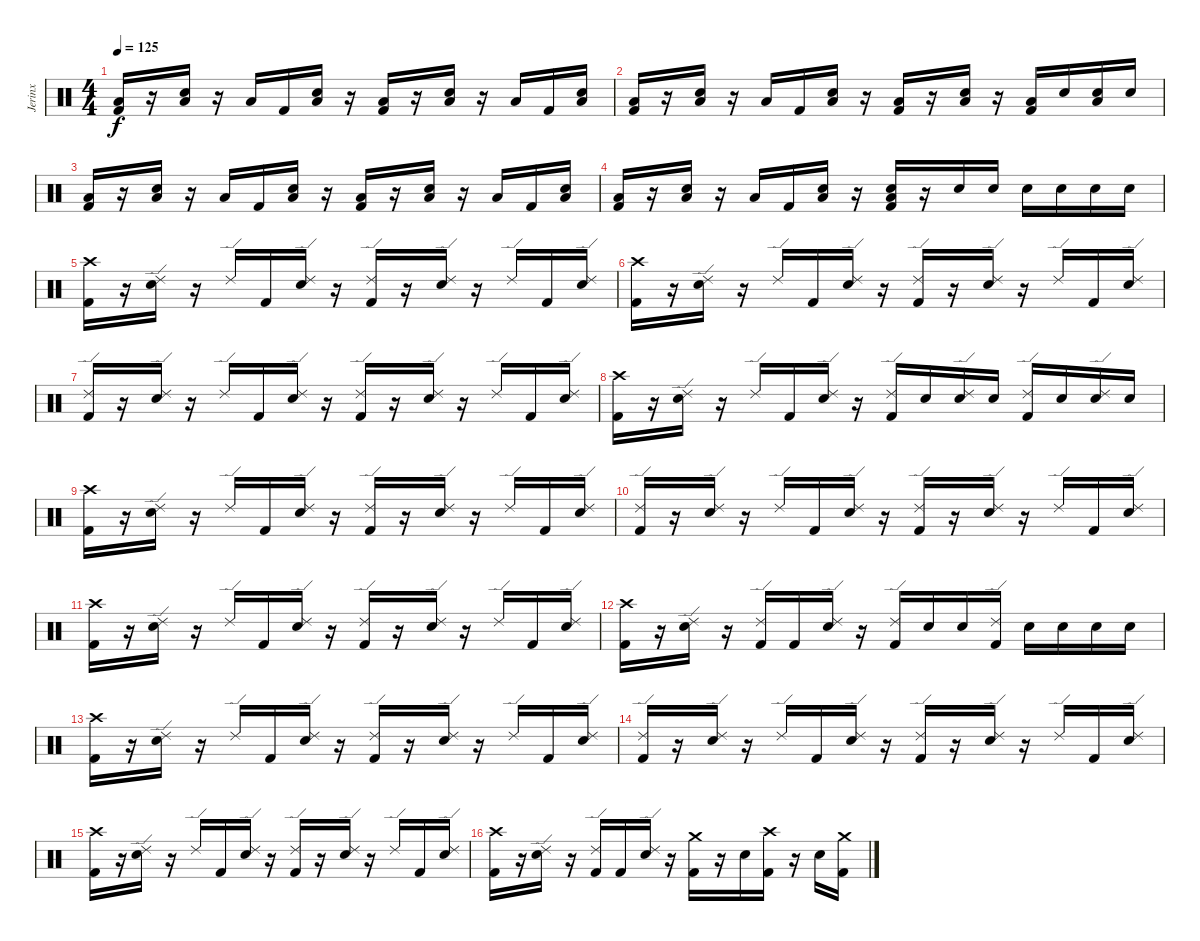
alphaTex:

\track ("Jerinx" "Jerinx") {instrument percussion}
\staff {score}
\articulation defaults
\ts (4 4)
\tempo 125
\clef neutral
\ks c
("Kick (hit) 2" "Low Floor Tom (hit)").16{dy f} r.16 ("Electric Snare (hit)" "Low Floor Tom (hit)").16 r.16 "Low Floor Tom (hit)".16 "Kick (hit) 2".16 ("Electric Snare (hit)" "Low Floor Tom (hit)").16 r.16 ("Kick (hit) 2" "Low Floor Tom (hit)").16 r.16 ("Electric Snare (hit)" "Low Floor Tom (hit)").16 r.16 "Low Floor Tom (hit)".16 "Kick (hit) 2".16 ("Electric Snare (hit)" "Low Floor Tom (hit)").16 |
("Kick (hit) 2" "Low Floor Tom (hit)").16 r.16 ("Electric Snare (hit)" "Low Floor Tom (hit)").16 r.16 "Low Floor Tom (hit)".16 "Kick (hit) 2".16 ("Electric Snare (hit)" "Low Floor Tom (hit)").16 r.16 ("Kick (hit) 2" "Low Floor Tom (hit)").16 r.16 ("Electric Snare (hit)" "Low Floor Tom (hit)").16 r.16 ("Kick (hit) 2" "Low Floor Tom (hit)").16 "Electric Snare (hit)".16 ("Electric Snare (hit)" "Low Floor Tom (hit)").16 "Electric Snare (hit)".16 |
("Kick (hit) 2" "Low Floor Tom (hit)").16 r.16 ("Electric Snare (hit)" "Low Floor Tom (hit)").16 r.16 "Low Floor Tom (hit)".16 "Kick (hit) 2".16 ("Electric Snare (hit)" "Low Floor Tom (hit)").16 r.16 ("Kick (hit) 2" "Low Floor Tom (hit)").16 r.16 ("Electric Snare (hit)" "Low Floor Tom (hit)").16 r.16 "Low Floor Tom (hit)".16 "Kick (hit) 2".16 ("Electric Snare (hit)" "Low Floor Tom (hit)").16 |
("Kick (hit) 2" "Low Floor Tom (hit)").16 r.16 ("Electric Snare (hit)" "Low Floor Tom (hit)").16 r.16 "Low Floor Tom (hit)".16 "Kick (hit) 2".16 ("Electric Snare (hit)" "Low Floor Tom (hit)").16 r.16 ("Kick (hit) 2" "Electric Snare (hit)" "Low Floor Tom (hit)").16 r.16 "Electric Snare (hit)".16 "Electric Snare (hit)".16 "Electric Snare (hit)".16 "Electric Snare (hit)".16 "Electric Snare (hit)".16 "Electric Snare (hit)".16 |
("Kick (hit) 2" "Crash high (hit)").16 r.16 ("Electric Snare (hit)" "Ride (edge) 2").16 r.16 "Ride (edge) 2".16 "Kick (hit) 2".16 ("Electric Snare (hit)" "Ride (edge) 2").16 r.16 ("Kick (hit) 2" "Ride (edge) 2").16 r.16 ("Electric Snare (hit)" "Ride (edge) 2").16 r.16 "Ride (edge) 2".16 "Kick (hit) 2".16 ("Electric Snare (hit)" "Ride (edge) 2").16 |
("Kick (hit) 2" "Crash high (hit)").16 r.16 ("Electric Snare (hit)" "Ride (edge) 2").16 r.16 "Ride (edge) 2".16 "Kick (hit) 2".16 ("Electric Snare (hit)" "Ride (edge) 2").16 r.16 ("Kick (hit) 2" "Ride (edge) 2").16 r.16 ("Electric Snare (hit)" "Ride (edge) 2").16 r.16 "Ride (edge) 2".16 "Kick (hit) 2".16 ("Electric Snare (hit)" "Ride (edge) 2").16 |
("Kick (hit) 2" "Ride (edge) 2").16 r.16 ("Electric Snare (hit)" "Ride (edge) 2").16 r.16 "Ride (edge) 2".16 "Kick (hit) 2".16 ("Electric Snare (hit)" "Ride (edge) 2").16 r.16 ("Kick (hit) 2" "Ride (edge) 2").16 r.16 ("Electric Snare (hit)" "Ride (edge) 2").16 r.16 "Ride (edge) 2".16 "Kick (hit) 2".16 ("Electric Snare (hit)" "Ride (edge) 2").16 |
("Kick (hit) 2" "Crash high (hit)").16 r.16 ("Electric Snare (hit)" "Ride (edge) 2").16 r.16 "Ride (edge) 2".16 "Kick (hit) 2".16 ("Electric Snare (hit)" "Ride (edge) 2").16 r.16 ("Kick (hit) 2" "Ride (edge) 2").16 "Electric Snare (hit)".16 ("Electric Snare (hit)" "Ride (edge) 2").16 "Electric Snare (hit)".16 ("Kick (hit) 2" "Ride (edge) 2").16 "Electric Snare (hit)".16 ("Electric Snare (hit)" "Ride (edge) 2").16 "Electric Snare (hit)".16 |
("Kick (hit) 2" "Crash high (hit)").16 r.16 ("Electric Snare (hit)" "Ride (edge) 2").16 r.16 "Ride (edge) 2".16 "Kick (hit) 2".16 ("Electric Snare (hit)" "Ride (edge) 2").16 r.16 ("Kick (hit) 2" "Ride (edge) 2").16 r.16 ("Electric Snare (hit)" "Ride (edge) 2").16 r.16 "Ride (edge) 2".16 "Kick (hit) 2".16 ("Electric Snare (hit)" "Ride (edge) 2").16 |
("Kick (hit) 2" "Ride (edge) 2").16 r.16 ("Electric Snare (hit)" "Ride (edge) 2").16 r.16 "Ride (edge) 2".16 "Kick (hit) 2".16 ("Electric Snare (hit)" "Ride (edge) 2").16 r.16 ("Kick (hit) 2" "Ride (edge) 2").16 r.16 ("Electric Snare (hit)" "Ride (edge) 2").16 r.16 "Ride (edge) 2".16 "Kick (hit) 2".16 ("Electric Snare (hit)" "Ride (edge) 2").16 |
("Kick (hit) 2" "Crash high (hit)").16 r.16 ("Electric Snare (hit)" "Ride (edge) 2").16 r.16 "Ride (edge) 2".16 "Kick (hit) 2".16 ("Electric Snare (hit)" "Ride (edge) 2").16 r.16 ("Kick (hit) 2" "Ride (edge) 2").16 r.16 ("Electric Snare (hit)" "Ride (edge) 2").16 r.16 "Ride (edge) 2".16 "Kick (hit) 2".16 ("Electric Snare (hit)" "Ride (edge) 2").16 |
("Kick (hit) 2" "Crash high (hit)").16 r.16 ("Electric Snare (hit)" "Ride (edge) 2").16 r.16 ("Kick (hit) 2" "Ride (edge) 2").16 "Kick (hit) 2".16 ("Electric Snare (hit)" "Ride (edge) 2").16 r.16 ("Kick (hit) 2" "Ride (edge) 2").16 "Electric Snare (hit)".16 "Electric Snare (hit)".16 ("Kick (hit) 2" "Ride (edge) 2").16 "Electric Snare (hit)".16 "Electric Snare (hit)".16 "Electric Snare (hit)".16 "Electric Snare (hit)".16 |
("Kick (hit) 2" "Crash high (hit)").16 r.16 ("Electric Snare (hit)" "Ride (edge) 2").16 r.16 "Ride (edge) 2".16 "Kick (hit) 2".16 ("Electric Snare (hit)" "Ride (edge) 2").16 r.16 ("Kick (hit) 2" "Ride (edge) 2").16 r.16 ("Electric Snare (hit)" "Ride (edge) 2").16 r.16 "Ride (edge) 2".16 "Kick (hit) 2".16 ("Electric Snare (hit)" "Ride (edge) 2").16 |
("Kick (hit) 2" "Ride (edge) 2").16 r.16 ("Electric Snare (hit)" "Ride (edge) 2").16 r.16 "Ride (edge) 2".16 "Kick (hit) 2".16 ("Electric Snare (hit)" "Ride (edge) 2").16 r.16 ("Kick (hit) 2" "Ride (edge) 2").16 r.16 ("Electric Snare (hit)" "Ride (edge) 2").16 r.16 "Ride (edge) 2".16 "Kick (hit) 2".16 ("Electric Snare (hit)" "Ride (edge) 2").16 |
("Kick (hit) 2" "Crash high (hit)").16 r.16 ("Electric Snare (hit)" "Ride (edge) 2").16 r.16 "Ride (edge) 2".16 "Kick (hit) 2".16 ("Electric Snare (hit)" "Ride (edge) 2").16 r.16 ("Kick (hit) 2" "Ride (edge) 2").16 r.16 ("Electric Snare (hit)" "Ride (edge) 2").16 r.16 "Ride (edge) 2".16 "Kick (hit) 2".16 ("Electric Snare (hit)" "Ride (edge) 2").16 |
("Kick (hit) 2" "Crash high (hit)").16 r.16 ("Electric Snare (hit)" "Ride (edge) 2").16 r.16 ("Kick (hit) 2" "Ride (edge) 2").16 "Kick (hit) 2".16 ("Electric Snare (hit)" "Ride (edge) 2").16 r.16 ("Kick (hit) 2" "Crash medium (hit)").16 r.16 "Electric Snare (hit)".16 ("Kick (hit) 2" "Crash high (hit)").16 r.16 "Electric Snare (hit)".16 ("Kick (hit) 2" "Crash medium (hit)").16
